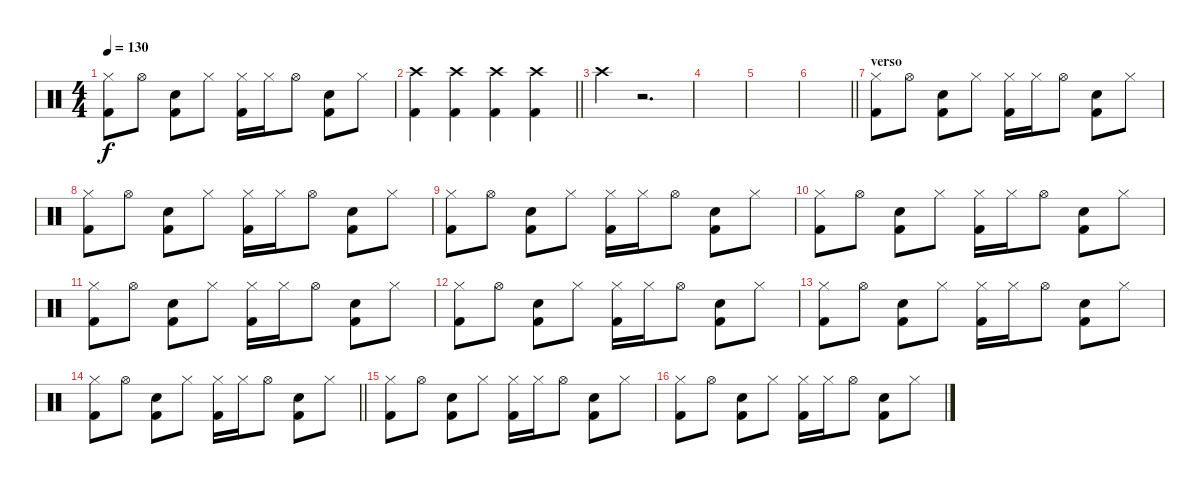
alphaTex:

\track "" {instrument percussion}
\staff {score}
\articulation defaults
\ts (4 4)
\tempo 130
\clef neutral
\ks c
("Hi-Hat (closed)" "Kick (hit) 2").8{dy f} "Hi-Hat (open)".8 ("Electric Snare (hit)" "Kick (hit) 2").8 "Hi-Hat (closed)".8 ("Hi-Hat (closed)" "Kick (hit) 2").16 "Hi-Hat (closed)".16 "Hi-Hat (open)".8 ("Electric Snare (hit)" "Kick (hit) 2").8 "Hi-Hat (closed)".8 |
\barLineRight lightlight
("Crash high (hit)" "Kick (hit) 2").4 ("Crash high (hit)" "Kick (hit) 2").4 ("Crash high (hit)" "Kick (hit) 2").4 ("Crash high (hit)" "Kick (hit) 2").4 |
"Crash high (hit)".4 r.2{d} |
|
|
\barLineRight lightlight
|
\section ("" "verso")
("Hi-Hat (closed)" "Kick (hit) 2").8 "Hi-Hat (open)".8 ("Electric Snare (hit)" "Kick (hit) 2").8 "Hi-Hat (closed)".8 ("Hi-Hat (closed)" "Kick (hit) 2").16 "Hi-Hat (closed)".16 "Hi-Hat (open)".8 ("Electric Snare (hit)" "Kick (hit) 2").8 "Hi-Hat (closed)".8 |
("Hi-Hat (closed)" "Kick (hit) 2").8 "Hi-Hat (open)".8 ("Electric Snare (hit)" "Kick (hit) 2").8 "Hi-Hat (closed)".8 ("Hi-Hat (closed)" "Kick (hit) 2").16 "Hi-Hat (closed)".16 "Hi-Hat (open)".8 ("Electric Snare (hit)" "Kick (hit) 2").8 "Hi-Hat (closed)".8 |
("Hi-Hat (closed)" "Kick (hit) 2").8 "Hi-Hat (open)".8 ("Electric Snare (hit)" "Kick (hit) 2").8 "Hi-Hat (closed)".8 ("Hi-Hat (closed)" "Kick (hit) 2").16 "Hi-Hat (closed)".16 "Hi-Hat (open)".8 ("Electric Snare (hit)" "Kick (hit) 2").8 "Hi-Hat (closed)".8 |
("Hi-Hat (closed)" "Kick (hit) 2").8 "Hi-Hat (open)".8 ("Electric Snare (hit)" "Kick (hit) 2").8 "Hi-Hat (closed)".8 ("Hi-Hat (closed)" "Kick (hit) 2").16 "Hi-Hat (closed)".16 "Hi-Hat (open)".8 ("Electric Snare (hit)" "Kick (hit) 2").8 "Hi-Hat (closed)".8 |
("Hi-Hat (closed)" "Kick (hit) 2").8 "Hi-Hat (open)".8 ("Electric Snare (hit)" "Kick (hit) 2").8 "Hi-Hat (closed)".8 ("Hi-Hat (closed)" "Kick (hit) 2").16 "Hi-Hat (closed)".16 "Hi-Hat (open)".8 ("Electric Snare (hit)" "Kick (hit) 2").8 "Hi-Hat (closed)".8 |
("Hi-Hat (closed)" "Kick (hit) 2").8 "Hi-Hat (open)".8 ("Electric Snare (hit)" "Kick (hit) 2").8 "Hi-Hat (closed)".8 ("Hi-Hat (closed)" "Kick (hit) 2").16 "Hi-Hat (closed)".16 "Hi-Hat (open)".8 ("Electric Snare (hit)" "Kick (hit) 2").8 "Hi-Hat (closed)".8 |
("Hi-Hat (closed)" "Kick (hit) 2").8 "Hi-Hat (open)".8 ("Electric Snare (hit)" "Kick (hit) 2").8 "Hi-Hat (closed)".8 ("Hi-Hat (closed)" "Kick (hit) 2").16 "Hi-Hat (closed)".16 "Hi-Hat (open)".8 ("Electric Snare (hit)" "Kick (hit) 2").8 "Hi-Hat (closed)".8 |
\barLineRight lightlight
("Hi-Hat (closed)" "Kick (hit) 2").8 "Hi-Hat (open)".8 ("Electric Snare (hit)" "Kick (hit) 2").8 "Hi-Hat (closed)".8 ("Hi-Hat (closed)" "Kick (hit) 2").16 "Hi-Hat (closed)".16 "Hi-Hat (open)".8 ("Electric Snare (hit)" "Kick (hit) 2").8 "Hi-Hat (closed)".8 |
\section ("" "")
("Hi-Hat (closed)" "Kick (hit) 2").8 "Hi-Hat (open)".8 ("Electric Snare (hit)" "Kick (hit) 2").8 "Hi-Hat (closed)".8 ("Hi-Hat (closed)" "Kick (hit) 2").16 "Hi-Hat (closed)".16 "Hi-Hat (open)".8 ("Electric Snare (hit)" "Kick (hit) 2").8 "Hi-Hat (closed)".8 |
("Hi-Hat (closed)" "Kick (hit) 2").8 "Hi-Hat (open)".8 ("Electric Snare (hit)" "Kick (hit) 2").8 "Hi-Hat (closed)".8 ("Hi-Hat (closed)" "Kick (hit) 2").16 "Hi-Hat (closed)".16 "Hi-Hat (open)".8 ("Electric Snare (hit)" "Kick (hit) 2").8 "Hi-Hat (closed)".8
